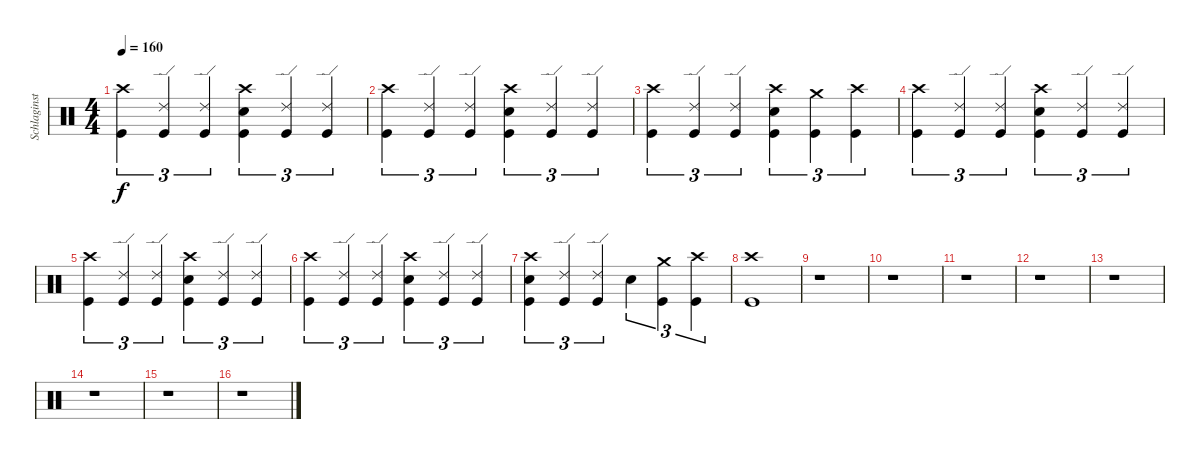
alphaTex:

\track ("Schlaginstrumente - Auswahl" "Schlaginst") {instrument percussion}
\staff {score}
\articulation defaults
\ts (4 4)
\tempo 160
\clef neutral
\ks c
("Crash high (hit)" "Kick (hit)").4{tu (3 2) dy f} ("Ride (edge) 2" "Kick (hit)").4{tu (3 2)} ("Ride (edge) 2" "Kick (hit)").4{tu (3 2)} ("Electric Snare (hit)" "Crash high (hit)" "Kick (hit)").4{tu (3 2)} ("Ride (edge) 2" "Kick (hit)").4{tu (3 2)} ("Ride (edge) 2" "Kick (hit)").4{tu (3 2)} |
("Crash high (hit)" "Kick (hit)").4{tu (3 2)} ("Ride (edge) 2" "Kick (hit)").4{tu (3 2)} ("Ride (edge) 2" "Kick (hit)").4{tu (3 2)} ("Electric Snare (hit)" "Crash high (hit)" "Kick (hit)").4{tu (3 2)} ("Ride (edge) 2" "Kick (hit)").4{tu (3 2)} ("Ride (edge) 2" "Kick (hit)").4{tu (3 2)} |
("Crash high (hit)" "Kick (hit)").4{tu (3 2)} ("Ride (edge) 2" "Kick (hit)").4{tu (3 2)} ("Ride (edge) 2" "Kick (hit)").4{tu (3 2)} ("Electric Snare (hit)" "Crash high (hit)" "Kick (hit)").4{tu (3 2)} ("Crash medium (hit)" "Kick (hit)").4{tu (3 2)} ("Crash high (hit)" "Kick (hit)").4{tu (3 2)} |
("Crash high (hit)" "Kick (hit)").4{tu (3 2)} ("Ride (edge) 2" "Kick (hit)").4{tu (3 2)} ("Ride (edge) 2" "Kick (hit)").4{tu (3 2)} ("Electric Snare (hit)" "Crash high (hit)" "Kick (hit)").4{tu (3 2)} ("Ride (edge) 2" "Kick (hit)").4{tu (3 2)} ("Ride (edge) 2" "Kick (hit)").4{tu (3 2)} |
("Crash high (hit)" "Kick (hit)").4{tu (3 2)} ("Ride (edge) 2" "Kick (hit)").4{tu (3 2)} ("Ride (edge) 2" "Kick (hit)").4{tu (3 2)} ("Electric Snare (hit)" "Crash high (hit)" "Kick (hit)").4{tu (3 2)} ("Ride (edge) 2" "Kick (hit)").4{tu (3 2)} ("Ride (edge) 2" "Kick (hit)").4{tu (3 2)} |
("Crash high (hit)" "Kick (hit)").4{tu (3 2)} ("Ride (edge) 2" "Kick (hit)").4{tu (3 2)} ("Ride (edge) 2" "Kick (hit)").4{tu (3 2)} ("Electric Snare (hit)" "Crash high (hit)" "Kick (hit)").4{tu (3 2)} ("Ride (edge) 2" "Kick (hit)").4{tu (3 2)} ("Ride (edge) 2" "Kick (hit)").4{tu (3 2)} |
("Electric Snare (hit)" "Crash high (hit)" "Kick (hit)").4{tu (3 2)} ("Ride (edge) 2" "Kick (hit)").4{tu (3 2)} ("Ride (edge) 2" "Kick (hit)").4{tu (3 2)} "Electric Snare (hit)".4{tu (3 2)} ("Crash medium (hit)" "Kick (hit)").4{tu (3 2)} ("Crash high (hit)" "Kick (hit)").4{tu (3 2)} |
("Crash high (hit)" "Kick (hit)").1 |
r.1 |
r.1 |
r.1 |
r.1 |
r.1 |
r.1 |
r.1 |
r.1
